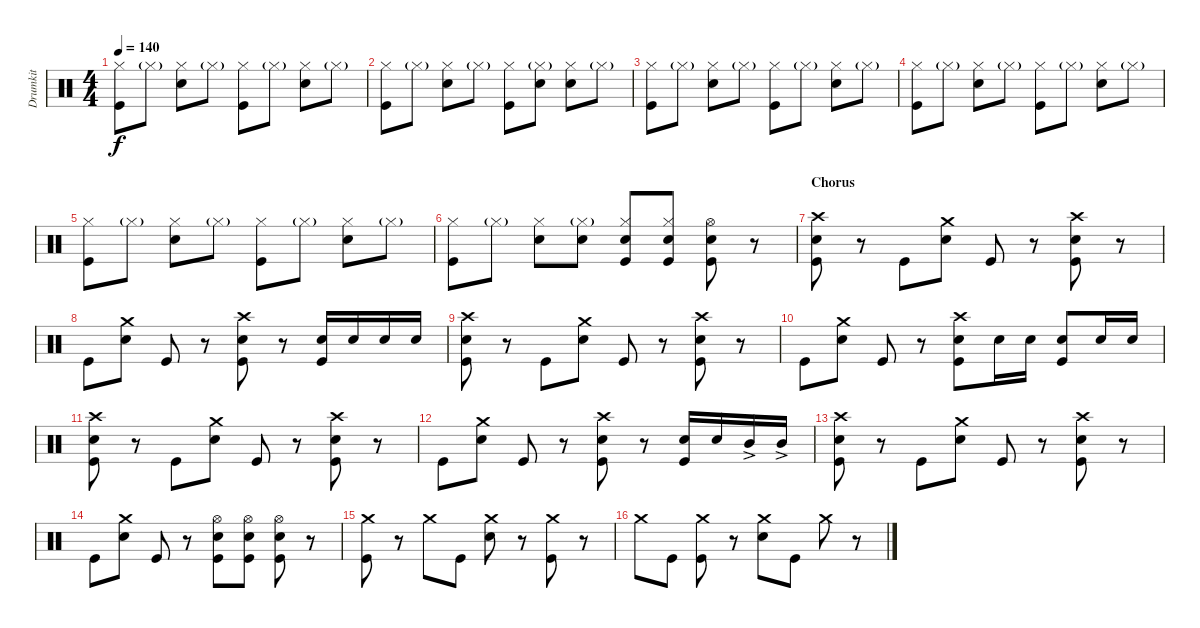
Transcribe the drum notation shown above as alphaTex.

\track ("Drumkit" "Drumkit") {instrument percussion}
\staff {score}
\articulation defaults
\ts (4 4)
\tempo 140
\clef neutral
\ks c
("Kick (hit)" "Hi-Hat (closed)").8{dy f} "Hi-Hat (closed)"{g}.8 ("Snare (hit) 2" "Hi-Hat (closed)").8 "Hi-Hat (closed)"{g}.8 ("Kick (hit)" "Hi-Hat (closed)").8 "Hi-Hat (closed)"{g}.8 ("Snare (hit) 2" "Hi-Hat (closed)").8 "Hi-Hat (closed)"{g}.8 |
("Kick (hit)" "Hi-Hat (closed)").8 "Hi-Hat (closed)"{g}.8 ("Snare (hit) 2" "Hi-Hat (closed)").8 "Hi-Hat (closed)"{g}.8 ("Kick (hit)" "Hi-Hat (closed)").8 ("Hi-Hat (closed)"{g} "Snare (hit) 2").8 ("Snare (hit) 2" "Hi-Hat (closed)").8 "Hi-Hat (closed)"{g}.8 |
("Kick (hit)" "Hi-Hat (closed)").8 "Hi-Hat (closed)"{g}.8 ("Snare (hit) 2" "Hi-Hat (closed)").8 "Hi-Hat (closed)"{g}.8 ("Hi-Hat (closed)" "Kick (hit)").8 "Hi-Hat (closed)"{g}.8 ("Snare (hit) 2" "Hi-Hat (closed)").8 "Hi-Hat (closed)"{g}.8 |
("Kick (hit)" "Hi-Hat (closed)").8 "Hi-Hat (closed)"{g}.8 ("Snare (hit) 2" "Hi-Hat (closed)").8 "Hi-Hat (closed)"{g}.8 ("Kick (hit)" "Hi-Hat (closed)").8 "Hi-Hat (closed)"{g}.8 ("Snare (hit) 2" "Hi-Hat (closed)").8 "Hi-Hat (closed)"{g}.8 |
("Kick (hit)" "Hi-Hat (closed)").8 "Hi-Hat (closed)"{g}.8 ("Snare (hit) 2" "Hi-Hat (closed)").8 "Hi-Hat (closed)"{g}.8 ("Hi-Hat (closed)" "Kick (hit)").8 "Hi-Hat (closed)"{g}.8 ("Snare (hit) 2" "Hi-Hat (closed)").8 "Hi-Hat (closed)"{g}.8 |
("Kick (hit)" "Hi-Hat (closed)").8 "Hi-Hat (closed)"{g}.8 ("Snare (hit) 2" "Hi-Hat (closed)").8 ("Hi-Hat (closed)"{g} "Snare (hit) 2").8 ("Kick (hit)" "Hi-Hat (closed)" "Snare (hit) 2").8 ("Hi-Hat (closed)" "Snare (hit) 2" "Kick (hit)").8 ("Snare (hit) 2" "Kick (hit)" "Hi-Hat (open)").8 r.8 |
\section ("" "Chorus")
("Crash high (hit)" "Kick (hit)" "Snare (hit) 2").8 r.8 "Kick (hit)".8 ("Crash medium (hit)" "Snare (hit) 2").8 "Kick (hit)".8 r.8 ("Crash high (hit)" "Kick (hit)" "Snare (hit) 2").8 r.8 |
"Kick (hit)".8 ("Crash medium (hit)" "Snare (hit) 2").8 "Kick (hit)".8 r.8 ("Crash high (hit)" "Kick (hit)" "Snare (hit) 2").8 r.8 ("Kick (hit)" "Snare (hit) 2").16 "Snare (hit) 2".16 "Snare (hit) 2".16 "Snare (hit) 2".16 |
("Crash high (hit)" "Kick (hit)" "Snare (hit) 2").8 r.8 "Kick (hit)".8 ("Crash medium (hit)" "Snare (hit) 2").8 "Kick (hit)".8 r.8 ("Crash high (hit)" "Kick (hit)" "Snare (hit) 2").8 r.8 |
"Kick (hit)".8 ("Crash medium (hit)" "Snare (hit) 2").8 "Kick (hit)".8 r.8 ("Crash high (hit)" "Kick (hit)" "Snare (hit) 2").8 "Snare (hit) 2".16 "Snare (hit) 2".16 ("Kick (hit)" "Snare (hit) 2").8 "Snare (hit) 2".16 "Snare (hit) 2".16 |
("Crash high (hit)" "Kick (hit)" "Snare (hit) 2").8 r.8 "Kick (hit)".8 ("Crash medium (hit)" "Snare (hit) 2").8 "Kick (hit)".8 r.8 ("Crash high (hit)" "Kick (hit)" "Snare (hit) 2").8 r.8 |
"Kick (hit)".8 ("Crash medium (hit)" "Snare (hit) 2").8 "Kick (hit)".8 r.8 ("Crash high (hit)" "Kick (hit)" "Snare (hit) 2").8 r.8 ("Kick (hit)" "Snare (hit) 2").16 "Snare (hit) 2".16 "Mid Tom (hit)"{ac}.16 "Mid Tom (hit)"{ac}.16 |
("Crash high (hit)" "Kick (hit)" "Snare (hit) 2").8 r.8 "Kick (hit)".8 ("Crash medium (hit)" "Snare (hit) 2").8 "Kick (hit)".8 r.8 ("Crash high (hit)" "Kick (hit)" "Snare (hit) 2").8 r.8 |
"Kick (hit)".8 ("Crash medium (hit)" "Snare (hit) 2").8 "Kick (hit)".8 r.8 ("Hi-Hat (open)" "Snare (hit) 2" "Kick (hit)").8 ("Hi-Hat (open)" "Snare (hit) 2" "Kick (hit)").8 ("Hi-Hat (open)" "Snare (hit) 2" "Kick (hit)").8 r.8 |
("Kick (hit)" "Crash medium (hit)").8 r.8 "Crash medium (hit)".8 "Kick (hit)".8 ("Snare (hit) 2" "Crash medium (hit)").8 r.8 ("Kick (hit)" "Crash medium (hit)").8 r.8 |
"Crash medium (hit)".8 "Kick (hit)".8 ("Kick (hit)" "Crash medium (hit)").8 r.8 ("Snare (hit) 2" "Crash medium (hit)").8 "Kick (hit)".8 "Crash medium (hit)".8 r.8
